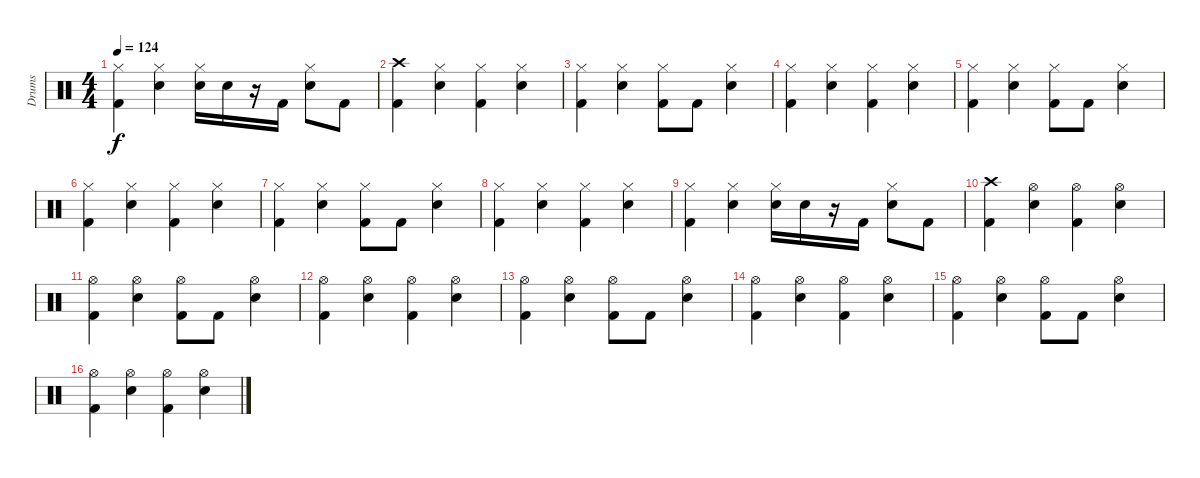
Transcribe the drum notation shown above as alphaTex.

\track ("Drums" "Drums") {instrument percussion}
\staff {score}
\articulation defaults
\ts (4 4)
\tempo 124
\clef neutral
\ks c
("Hi-Hat (closed)" "Kick (hit) 2").4{dy f} ("Hi-Hat (closed)" "Snare (hit) 2").4 ("Hi-Hat (closed)" "Snare (hit) 2").16 "Snare (hit) 2".16 r.16 "Kick (hit) 2".16 ("Hi-Hat (closed)" "Snare (hit) 2").8 "Kick (hit) 2".8 |
("Crash high (hit)" "Kick (hit) 2").4 ("Hi-Hat (closed)" "Snare (hit) 2").4 ("Hi-Hat (closed)" "Kick (hit) 2").4 ("Hi-Hat (closed)" "Snare (hit) 2").4 |
("Hi-Hat (closed)" "Kick (hit) 2").4 ("Hi-Hat (closed)" "Snare (hit) 2").4 ("Hi-Hat (closed)" "Kick (hit) 2").8 "Kick (hit) 2".8 ("Hi-Hat (closed)" "Snare (hit) 2").4 |
("Hi-Hat (closed)" "Kick (hit) 2").4 ("Hi-Hat (closed)" "Snare (hit) 2").4 ("Hi-Hat (closed)" "Kick (hit) 2").4 ("Hi-Hat (closed)" "Snare (hit) 2").4 |
("Hi-Hat (closed)" "Kick (hit) 2").4 ("Hi-Hat (closed)" "Snare (hit) 2").4 ("Hi-Hat (closed)" "Kick (hit) 2").8 "Kick (hit) 2".8 ("Hi-Hat (closed)" "Snare (hit) 2").4 |
("Hi-Hat (closed)" "Kick (hit) 2").4 ("Hi-Hat (closed)" "Snare (hit) 2").4 ("Hi-Hat (closed)" "Kick (hit) 2").4 ("Hi-Hat (closed)" "Snare (hit) 2").4 |
("Hi-Hat (closed)" "Kick (hit) 2").4 ("Hi-Hat (closed)" "Snare (hit) 2").4 ("Hi-Hat (closed)" "Kick (hit) 2").8 "Kick (hit) 2".8 ("Hi-Hat (closed)" "Snare (hit) 2").4 |
("Hi-Hat (closed)" "Kick (hit) 2").4 ("Hi-Hat (closed)" "Snare (hit) 2").4 ("Hi-Hat (closed)" "Kick (hit) 2").4 ("Hi-Hat (closed)" "Snare (hit) 2").4 |
("Hi-Hat (closed)" "Kick (hit) 2").4 ("Hi-Hat (closed)" "Snare (hit) 2").4 ("Hi-Hat (closed)" "Snare (hit) 2").16 "Snare (hit) 2".16 r.16 "Kick (hit) 2".16 ("Hi-Hat (closed)" "Snare (hit) 2").8 "Kick (hit) 2".8 |
("Crash high (hit)" "Kick (hit) 2").4 ("Hi-Hat (open)" "Snare (hit) 2").4 ("Hi-Hat (open)" "Kick (hit) 2").4 ("Hi-Hat (open)" "Snare (hit) 2").4 |
("Hi-Hat (open)" "Kick (hit) 2").4 ("Hi-Hat (open)" "Snare (hit) 2").4 ("Hi-Hat (open)" "Kick (hit) 2").8 "Kick (hit) 2".8 ("Hi-Hat (open)" "Snare (hit) 2").4 |
("Hi-Hat (open)" "Kick (hit) 2").4 ("Hi-Hat (open)" "Snare (hit) 2").4 ("Hi-Hat (open)" "Kick (hit) 2").4 ("Hi-Hat (open)" "Snare (hit) 2").4 |
("Hi-Hat (open)" "Kick (hit) 2").4 ("Hi-Hat (open)" "Snare (hit) 2").4 ("Hi-Hat (open)" "Kick (hit) 2").8 "Kick (hit) 2".8 ("Hi-Hat (open)" "Snare (hit) 2").4 |
("Hi-Hat (open)" "Kick (hit) 2").4 ("Hi-Hat (open)" "Snare (hit) 2").4 ("Hi-Hat (open)" "Kick (hit) 2").4 ("Hi-Hat (open)" "Snare (hit) 2").4 |
("Hi-Hat (open)" "Kick (hit) 2").4 ("Hi-Hat (open)" "Snare (hit) 2").4 ("Hi-Hat (open)" "Kick (hit) 2").8 "Kick (hit) 2".8 ("Hi-Hat (open)" "Snare (hit) 2").4 |
("Hi-Hat (open)" "Kick (hit) 2").4 ("Hi-Hat (open)" "Snare (hit) 2").4 ("Hi-Hat (open)" "Kick (hit) 2").4 ("Hi-Hat (open)" "Snare (hit) 2").4
